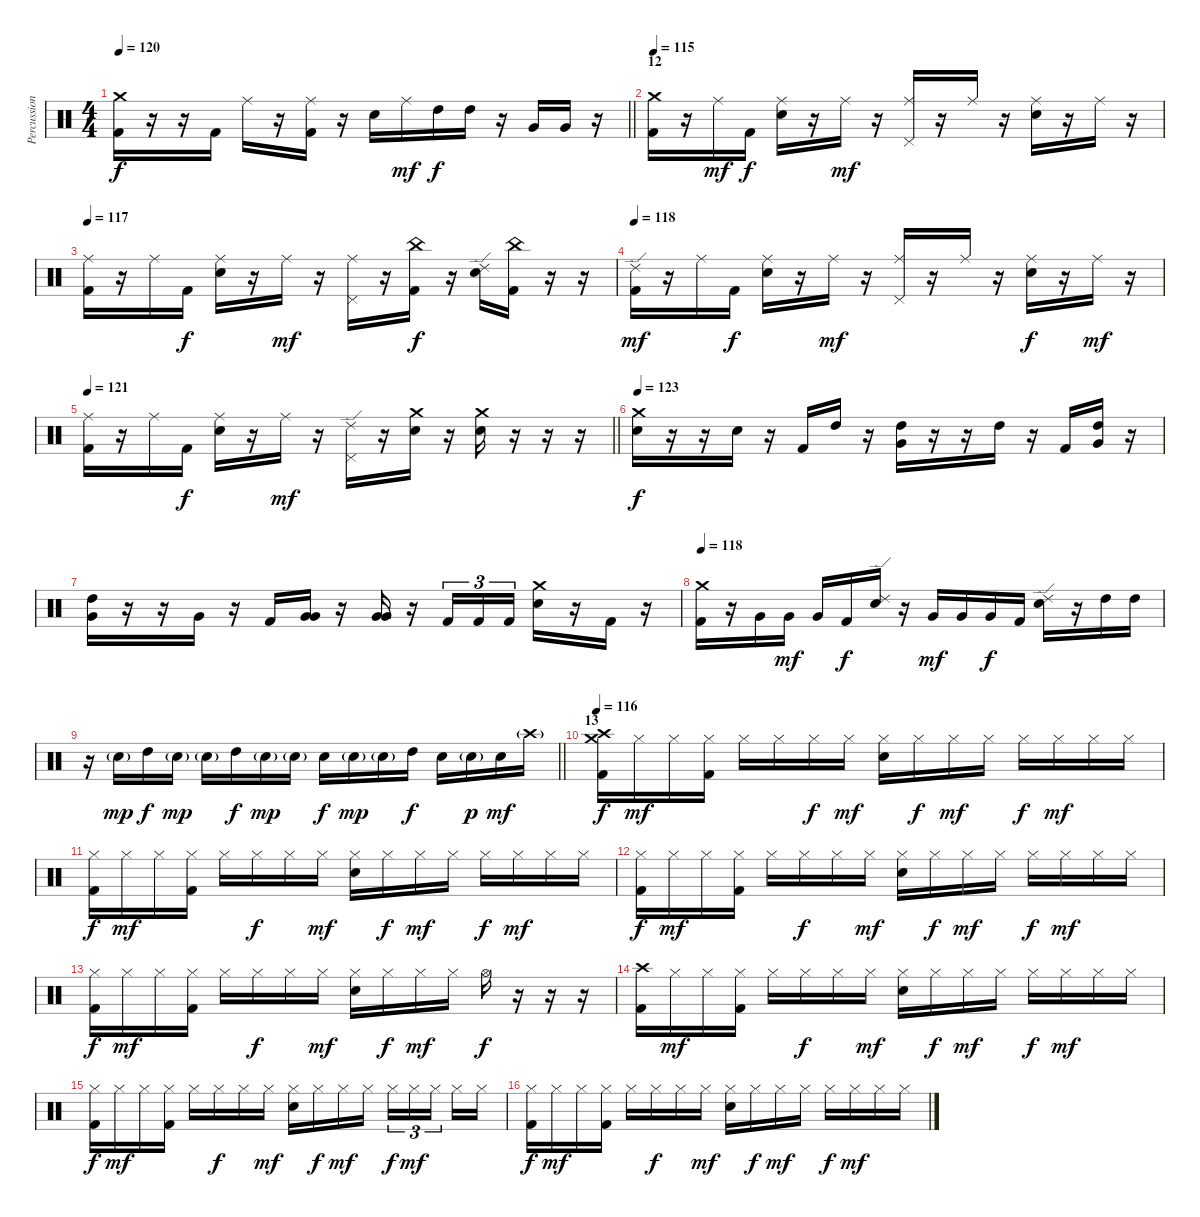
\track ("Percussion" "Percussion") {instrument percussion}
\staff {score}
\articulation defaults
\ts (4 4)
\tempo 120
\clef neutral
\barLineRight lightlight
\ks c
("Crash medium (hit)" "Kick (hit) 2").16{dy f} r.16 r.16 "Kick (hit) 2".16 "Ride (middle)".16 r.16 ("Ride (middle)" "Kick (hit) 2").16 r.16 "Snare (hit) 2".16 "Ride (middle)".16{dy mf} "High Tom (hit)".16{dy f} "High Tom (hit)".16 r.16 "Very Low Tom (hit)".16 "Very Low Tom (hit)".16 r.16 |
\section ("" "12")
\tempo 115
("Crash medium (hit)" "Kick (hit) 2").16 r.16 "Ride (middle)".16{dy mf} "Kick (hit) 2".16{dy f} ("Ride (middle)" "Snare (hit) 2").16 r.16 "Ride (middle)".16{dy mf} r.16 ("Ride (middle)" "Pedal Hi-Hat (hit)").16 r.16 "Ride (middle)".16 r.16 ("Ride (middle)" "Snare (hit) 2").16 r.16 "Ride (middle)".16 r.16 |
\tempo 117
("Ride (middle)" "Kick (hit) 2").16 r.16 "Ride (middle)".16 "Kick (hit) 2".16{dy f} ("Ride (middle)" "Snare (hit) 2").16 r.16 "Ride (middle)".16{dy mf} r.16 ("Ride (middle)" "Pedal Hi-Hat (hit)").16 r.16 ("China (hit)" "Kick (hit) 2").16{dy f} r.16 ("Ride (edge) 2" "Snare (hit) 2").16 ("China (hit)" "Kick (hit) 2").16 r.16 r.16 |
\tempo 118
("Ride (edge) 2" "Kick (hit) 2").16{dy mf} r.16 "Ride (middle)".16 "Kick (hit) 2".16{dy f} ("Ride (middle)" "Snare (hit) 2").16 r.16 "Ride (middle)".16{dy mf} r.16 ("Ride (middle)" "Pedal Hi-Hat (hit)").16 r.16 "Ride (middle)".16 r.16 ("Ride (middle)" "Snare (hit) 2").16{dy f} r.16 "Ride (middle)".16{dy mf} r.16 |
\tempo 121
\barLineRight lightlight
("Ride (middle)" "Kick (hit) 2").16 r.16 "Ride (middle)".16 "Kick (hit) 2".16{dy f} ("Ride (middle)" "Snare (hit) 2").16 r.16 "Ride (middle)".16{dy mf} r.16 ("Ride (edge) 2" "Pedal Hi-Hat (hit)").16 r.16 ("Crash medium (hit)" "Snare (hit) 2").16 r.16 ("Crash medium (hit)" "Snare (hit) 2").16 r.16 r.16 r.16 |
\tempo 123
("Crash medium (hit)" "Snare (hit) 2").16{dy f} r.16 r.16 "Snare (hit) 2".16 r.16 "Kick (hit) 2".16 "High Tom (hit)".16 r.16 ("High Tom (hit)" "Very Low Tom (hit)").16{bu 60} r.16 r.16 "High Tom (hit)".16 r.16 "Kick (hit) 2".16 ("High Tom (hit)" "Very Low Tom (hit)").16{bu 60} r.16 |
("High Tom (hit)" "Very Low Tom (hit)").16{bu 60} r.16 r.16 "Very Low Tom (hit)".16 r.16 "Kick (hit) 2".16 ("Very Low Tom (hit)" "Very Low Tom (hit)").16{bu 60} r.16 ("Very Low Tom (hit)" "Very Low Tom (hit)").16{bu 60} r.16 "Kick (hit) 2".16{tu (3 2)} "Kick (hit) 2".16{tu (3 2)} "Kick (hit) 2".16{tu (3 2)} ("Crash medium (hit)" "Snare (hit) 2").16 r.16 "Kick (hit) 2".16 r.16 |
\tempo 118
("Crash medium (hit)" "Kick (hit) 2").16 r.16 "Very Low Tom (hit)".16 "Very Low Tom (hit)".16{dy mf} "Very Low Tom (hit)".16 "Kick (hit) 2".16{dy f} ("Ride (edge) 2" "Snare (hit) 2").16 r.16 "Very Low Tom (hit)".16{dy mf} "Very Low Tom (hit)".16 "Very Low Tom (hit)".16{dy f} "Kick (hit) 2".16 ("Ride (edge) 2" "Snare (hit) 2").16 r.16 "High Tom (hit)".16 "High Tom (hit)".16 |
\barLineRight lightlight
r.16 "Snare (hit) 2"{g}.16{dy mp} "High Tom (hit)".16{dy f} "Snare (hit) 2"{g}.16{dy mp} "Snare (hit) 2"{g}.16 "High Tom (hit)".16{dy f} "Snare (hit) 2"{g}.16{dy mp} "Snare (hit) 2"{g}.16 "Snare (hit) 2".16{dy f} "Snare (hit) 2"{g}.16{dy mp} "Snare (hit) 2"{g}.16 "High Tom (hit)".16{dy f} "Snare (hit) 2".16 "Snare (hit) 2"{g}.16{dy p} "Snare (hit) 2".16{dy mf} "Crash high (hit)"{g}.16 |
\section ("" "13")
\tempo 116
("Crash high (hit)" "Crash medium (hit)" "Kick (hit) 2").16{dy f} "Hi-Hat (closed)".16{dy mf} "Hi-Hat (closed)".16 ("Hi-Hat (closed)" "Kick (hit) 2").16 "Hi-Hat (closed)".16 "Hi-Hat (closed)".16 "Hi-Hat (closed)".16{dy f} "Hi-Hat (closed)".16{dy mf} ("Hi-Hat (closed)" "Snare (hit) 2").16 "Hi-Hat (closed)".16{dy f} "Hi-Hat (closed)".16{dy mf} "Hi-Hat (closed)".16 "Hi-Hat (closed)".16{dy f} "Hi-Hat (closed)".16{dy mf} "Hi-Hat (closed)".16 "Hi-Hat (closed)".16 |
("Hi-Hat (closed)" "Kick (hit) 2").16{dy f} "Hi-Hat (closed)".16{dy mf} "Hi-Hat (closed)".16 ("Hi-Hat (closed)" "Kick (hit) 2").16 "Hi-Hat (closed)".16 "Hi-Hat (closed)".16{dy f} "Hi-Hat (closed)".16 "Hi-Hat (closed)".16{dy mf} ("Hi-Hat (closed)" "Snare (hit) 2").16 "Hi-Hat (closed)".16{dy f} "Hi-Hat (closed)".16{dy mf} "Hi-Hat (closed)".16 "Hi-Hat (closed)".16{dy f} "Hi-Hat (closed)".16{dy mf} "Hi-Hat (closed)".16 "Hi-Hat (closed)".16 |
("Hi-Hat (closed)" "Kick (hit) 2").16{dy f} "Hi-Hat (closed)".16{dy mf} "Hi-Hat (closed)".16 ("Hi-Hat (closed)" "Kick (hit) 2").16 "Hi-Hat (closed)".16 "Hi-Hat (closed)".16{dy f} "Hi-Hat (closed)".16 "Hi-Hat (closed)".16{dy mf} ("Hi-Hat (closed)" "Snare (hit) 2").16 "Hi-Hat (closed)".16{dy f} "Hi-Hat (closed)".16{dy mf} "Hi-Hat (closed)".16 "Hi-Hat (closed)".16{dy f} "Hi-Hat (closed)".16{dy mf} "Hi-Hat (closed)".16 "Hi-Hat (closed)".16 |
("Hi-Hat (closed)" "Kick (hit) 2").16{dy f} "Hi-Hat (closed)".16{dy mf} "Hi-Hat (closed)".16 ("Hi-Hat (closed)" "Kick (hit) 2").16 "Hi-Hat (closed)".16 "Hi-Hat (closed)".16{dy f} "Hi-Hat (closed)".16 "Hi-Hat (closed)".16{dy mf} ("Hi-Hat (closed)" "Snare (hit) 2").16 "Hi-Hat (closed)".16{dy f} "Hi-Hat (closed)".16{dy mf} "Hi-Hat (closed)".16 "Hi-Hat (open)".16{dy f} r.16 r.16 r.16 |
("Crash high (hit)" "Kick (hit) 2").16 "Hi-Hat (closed)".16{dy mf} "Hi-Hat (closed)".16 ("Hi-Hat (closed)" "Kick (hit) 2").16 "Hi-Hat (closed)".16 "Hi-Hat (closed)".16{dy f} "Hi-Hat (closed)".16 "Hi-Hat (closed)".16{dy mf} ("Hi-Hat (closed)" "Snare (hit) 2").16 "Hi-Hat (closed)".16{dy f} "Hi-Hat (closed)".16{dy mf} "Hi-Hat (closed)".16 "Hi-Hat (closed)".16{dy f} "Hi-Hat (closed)".16{dy mf} "Hi-Hat (closed)".16 "Hi-Hat (closed)".16 |
("Hi-Hat (closed)" "Kick (hit) 2").16{dy f} "Hi-Hat (closed)".16{dy mf} "Hi-Hat (closed)".16 ("Hi-Hat (closed)" "Kick (hit) 2").16 "Hi-Hat (closed)".16 "Hi-Hat (closed)".16{dy f} "Hi-Hat (closed)".16 "Hi-Hat (closed)".16{dy mf} ("Hi-Hat (closed)" "Snare (hit) 2").16 "Hi-Hat (closed)".16{dy f} "Hi-Hat (closed)".16{dy mf} "Hi-Hat (closed)".16 "Hi-Hat (closed)".16{tu (3 2) dy f} "Hi-Hat (closed)".16{tu (3 2) dy mf} "Hi-Hat (closed)".16{tu (3 2) beam splitsecondary} "Hi-Hat (closed)".16 "Hi-Hat (closed)".16 |
("Hi-Hat (closed)" "Kick (hit) 2").16{dy f} "Hi-Hat (closed)".16{dy mf} "Hi-Hat (closed)".16 ("Hi-Hat (closed)" "Kick (hit) 2").16 "Hi-Hat (closed)".16 "Hi-Hat (closed)".16{dy f} "Hi-Hat (closed)".16 "Hi-Hat (closed)".16{dy mf} ("Hi-Hat (closed)" "Snare (hit) 2").16 "Hi-Hat (closed)".16{dy f} "Hi-Hat (closed)".16{dy mf} "Hi-Hat (closed)".16 "Hi-Hat (closed)".16{dy f} "Hi-Hat (closed)".16{dy mf} "Hi-Hat (closed)".16 "Hi-Hat (closed)".16
